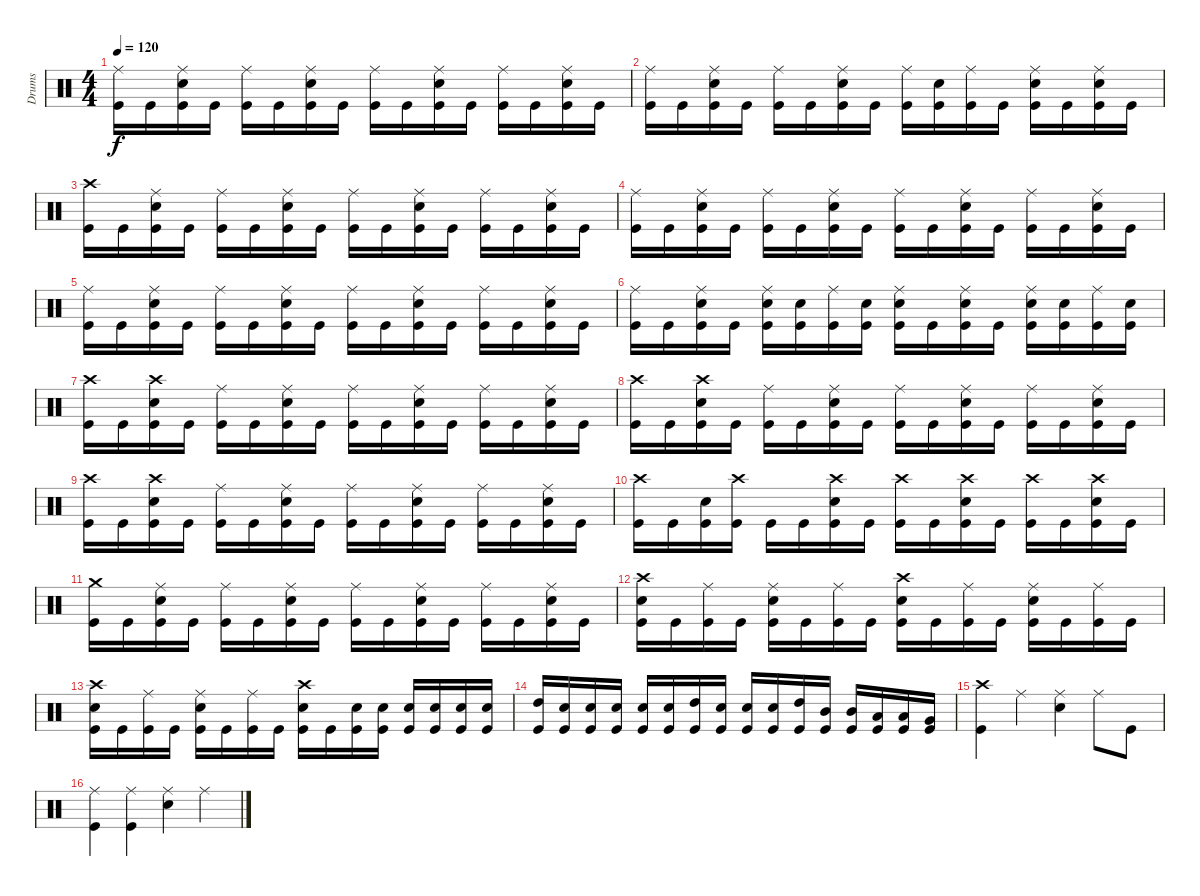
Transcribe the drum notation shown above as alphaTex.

\track ("Drums" "Drums") {instrument percussion}
\staff {score}
\articulation defaults
\ts (4 4)
\tempo 120
\clef neutral
\ks c
("Ride (middle)" "Kick (hit)").16{dy f} "Kick (hit)".16 ("Ride (middle)" "Snare (hit) 2" "Kick (hit)").16 "Kick (hit)".16 ("Ride (middle)" "Kick (hit)").16 "Kick (hit)".16 ("Ride (middle)" "Snare (hit) 2" "Kick (hit)").16 "Kick (hit)".16 ("Ride (middle)" "Kick (hit)").16 "Kick (hit)".16 ("Ride (middle)" "Snare (hit) 2" "Kick (hit)").16 "Kick (hit)".16 ("Ride (middle)" "Kick (hit)").16 "Kick (hit)".16 ("Ride (middle)" "Snare (hit) 2" "Kick (hit)").16 "Kick (hit)".16 |
("Ride (middle)" "Kick (hit)").16 "Kick (hit)".16 ("Ride (middle)" "Snare (hit) 2" "Kick (hit)").16 "Kick (hit)".16 ("Ride (middle)" "Kick (hit)").16 "Kick (hit)".16 ("Ride (middle)" "Snare (hit) 2" "Kick (hit)").16 "Kick (hit)".16 ("Ride (middle)" "Kick (hit)").16 ("Snare (hit) 2" "Kick (hit)").16 ("Ride (middle)" "Kick (hit)").16 "Kick (hit)".16 ("Ride (middle)" "Snare (hit) 2" "Kick (hit)").16 "Kick (hit)".16 ("Ride (middle)" "Snare (hit) 2" "Kick (hit)").16 "Kick (hit)".16 |
("Crash high (hit)" "Kick (hit)").16 "Kick (hit)".16 ("Ride (middle)" "Snare (hit) 2" "Kick (hit)").16 "Kick (hit)".16 ("Ride (middle)" "Kick (hit)").16 "Kick (hit)".16 ("Ride (middle)" "Snare (hit) 2" "Kick (hit)").16 "Kick (hit)".16 ("Ride (middle)" "Kick (hit)").16 "Kick (hit)".16 ("Ride (middle)" "Snare (hit) 2" "Kick (hit)").16 "Kick (hit)".16 ("Ride (middle)" "Kick (hit)").16 "Kick (hit)".16 ("Ride (middle)" "Snare (hit) 2" "Kick (hit)").16 "Kick (hit)".16 |
("Ride (middle)" "Kick (hit)").16 "Kick (hit)".16 ("Ride (middle)" "Snare (hit) 2" "Kick (hit)").16 "Kick (hit)".16 ("Ride (middle)" "Kick (hit)").16 "Kick (hit)".16 ("Ride (middle)" "Snare (hit) 2" "Kick (hit)").16 "Kick (hit)".16 ("Ride (middle)" "Kick (hit)").16 "Kick (hit)".16 ("Ride (middle)" "Snare (hit) 2" "Kick (hit)").16 "Kick (hit)".16 ("Ride (middle)" "Kick (hit)").16 "Kick (hit)".16 ("Ride (middle)" "Snare (hit) 2" "Kick (hit)").16 "Kick (hit)".16 |
("Ride (middle)" "Kick (hit)").16 "Kick (hit)".16 ("Ride (middle)" "Snare (hit) 2" "Kick (hit)").16 "Kick (hit)".16 ("Ride (middle)" "Kick (hit)").16 "Kick (hit)".16 ("Ride (middle)" "Snare (hit) 2" "Kick (hit)").16 "Kick (hit)".16 ("Ride (middle)" "Kick (hit)").16 "Kick (hit)".16 ("Ride (middle)" "Snare (hit) 2" "Kick (hit)").16 "Kick (hit)".16 ("Ride (middle)" "Kick (hit)").16 "Kick (hit)".16 ("Ride (middle)" "Snare (hit) 2" "Kick (hit)").16 "Kick (hit)".16 |
("Ride (middle)" "Kick (hit)").16 "Kick (hit)".16 ("Ride (middle)" "Snare (hit) 2" "Kick (hit)").16 "Kick (hit)".16 ("Ride (middle)" "Snare (hit) 2" "Kick (hit)").16 ("Snare (hit) 2" "Kick (hit)").16 ("Ride (middle)" "Kick (hit)").16 ("Snare (hit) 2" "Kick (hit)").16 ("Ride (middle)" "Snare (hit) 2" "Kick (hit)").16 "Kick (hit)".16 ("Ride (middle)" "Snare (hit) 2" "Kick (hit)").16 "Kick (hit)".16 ("Ride (middle)" "Snare (hit) 2" "Kick (hit)").16 ("Snare (hit) 2" "Kick (hit)").16 ("Ride (middle)" "Kick (hit)").16 ("Snare (hit) 2" "Kick (hit)").16 |
("Crash high (hit)" "Kick (hit)").16 "Kick (hit)".16 ("Crash high (hit)" "Snare (hit) 2" "Kick (hit)").16 "Kick (hit)".16 ("Ride (middle)" "Kick (hit)").16 "Kick (hit)".16 ("Ride (middle)" "Snare (hit) 2" "Kick (hit)").16 "Kick (hit)".16 ("Ride (middle)" "Kick (hit)").16 "Kick (hit)".16 ("Ride (middle)" "Snare (hit) 2" "Kick (hit)").16 "Kick (hit)".16 ("Ride (middle)" "Kick (hit)").16 "Kick (hit)".16 ("Ride (middle)" "Snare (hit) 2" "Kick (hit)").16 "Kick (hit)".16 |
("Crash high (hit)" "Kick (hit)").16 "Kick (hit)".16 ("Crash high (hit)" "Snare (hit) 2" "Kick (hit)").16 "Kick (hit)".16 ("Ride (middle)" "Kick (hit)").16 "Kick (hit)".16 ("Ride (middle)" "Snare (hit) 2" "Kick (hit)").16 "Kick (hit)".16 ("Ride (middle)" "Kick (hit)").16 "Kick (hit)".16 ("Ride (middle)" "Snare (hit) 2" "Kick (hit)").16 "Kick (hit)".16 ("Ride (middle)" "Kick (hit)").16 "Kick (hit)".16 ("Ride (middle)" "Snare (hit) 2" "Kick (hit)").16 "Kick (hit)".16 |
("Crash high (hit)" "Kick (hit)").16 "Kick (hit)".16 ("Crash high (hit)" "Snare (hit) 2" "Kick (hit)").16 "Kick (hit)".16 ("Ride (middle)" "Kick (hit)").16 "Kick (hit)".16 ("Ride (middle)" "Snare (hit) 2" "Kick (hit)").16 "Kick (hit)".16 ("Ride (middle)" "Kick (hit)").16 "Kick (hit)".16 ("Ride (middle)" "Snare (hit) 2" "Kick (hit)").16 "Kick (hit)".16 ("Ride (middle)" "Kick (hit)").16 "Kick (hit)".16 ("Ride (middle)" "Snare (hit) 2" "Kick (hit)").16 "Kick (hit)".16 |
("Crash high (hit)" "Kick (hit)").16 "Kick (hit)".16 ("Snare (hit) 2" "Kick (hit)").16 ("Crash high (hit)" "Kick (hit)").16 "Kick (hit)".16 "Kick (hit)".16 ("Crash high (hit)" "Snare (hit) 2" "Kick (hit)").16 "Kick (hit)".16 ("Crash high (hit)" "Kick (hit)").16 "Kick (hit)".16 ("Crash high (hit)" "Snare (hit) 2" "Kick (hit)").16 "Kick (hit)".16 ("Crash high (hit)" "Kick (hit)").16 "Kick (hit)".16 ("Crash high (hit)" "Snare (hit) 2" "Kick (hit)").16 "Kick (hit)".16 |
("Crash medium (hit)" "Kick (hit)").16 "Kick (hit)".16 ("Ride (middle)" "Snare (hit) 2" "Kick (hit)").16 "Kick (hit)".16 ("Ride (middle)" "Kick (hit)").16 "Kick (hit)".16 ("Ride (middle)" "Snare (hit) 2" "Kick (hit)").16 "Kick (hit)".16 ("Ride (middle)" "Kick (hit)").16 "Kick (hit)".16 ("Ride (middle)" "Snare (hit) 2" "Kick (hit)").16 "Kick (hit)".16 ("Ride (middle)" "Kick (hit)").16 "Kick (hit)".16 ("Ride (middle)" "Snare (hit) 2" "Kick (hit)").16 "Kick (hit)".16 |
("Crash high (hit)" "Snare (hit) 2" "Kick (hit)").16 "Kick (hit)".16 ("Ride (middle)" "Kick (hit)").16 "Kick (hit)".16 ("Ride (middle)" "Snare (hit) 2" "Kick (hit)").16 "Kick (hit)".16 ("Ride (middle)" "Kick (hit)").16 "Kick (hit)".16 ("Crash high (hit)" "Snare (hit) 2" "Kick (hit)").16 "Kick (hit)".16 ("Ride (middle)" "Kick (hit)").16 "Kick (hit)".16 ("Ride (middle)" "Snare (hit) 2" "Kick (hit)").16 "Kick (hit)".16 ("Ride (middle)" "Kick (hit)").16 "Kick (hit)".16 |
("Crash high (hit)" "Snare (hit) 2" "Kick (hit)").16 "Kick (hit)".16 ("Ride (middle)" "Kick (hit)").16 "Kick (hit)".16 ("Ride (middle)" "Snare (hit) 2" "Kick (hit)").16 "Kick (hit)".16 ("Ride (middle)" "Kick (hit)").16 "Kick (hit)".16 ("Crash high (hit)" "Snare (hit) 2" "Kick (hit)").16 "Kick (hit)".16 ("Snare (hit) 2" "Kick (hit)").16 ("Snare (hit) 2" "Kick (hit)").16 ("Snare (hit) 2" "Kick (hit)").16 ("Snare (hit) 2" "Kick (hit)").16 ("Snare (hit) 2" "Kick (hit)").16 ("Snare (hit) 2" "Kick (hit)").16 |
("High Tom (hit)" "Kick (hit)").16 ("Snare (hit) 2" "Kick (hit)").16 ("Snare (hit) 2" "Kick (hit)").16 ("Snare (hit) 2" "Kick (hit)").16 ("Snare (hit) 2" "Kick (hit)").16 ("Snare (hit) 2" "Kick (hit)").16 ("High Tom (hit)" "Kick (hit)").16 ("Snare (hit) 2" "Kick (hit)").16 ("Snare (hit) 2" "Kick (hit)").16 ("Snare (hit) 2" "Kick (hit)").16 ("High Tom (hit)" "Kick (hit)").16 ("Mid Tom (hit)" "Kick (hit)").16 ("Mid Tom (hit)" "Kick (hit)").16 ("Low Tom (hit)" "Kick (hit)").16 ("Low Tom (hit)" "Kick (hit)").16 ("Very Low Tom (hit)" "Kick (hit)").16 |
("Crash high (hit)" "Kick (hit)").4 "Ride (middle)".4 ("Ride (middle)" "Snare (hit) 2").4 "Ride (middle)".8 "Kick (hit)".8 |
("Ride (middle)" "Kick (hit)").4 ("Ride (middle)" "Kick (hit)").4 ("Ride (middle)" "Snare (hit) 2").4 "Ride (middle)".4
